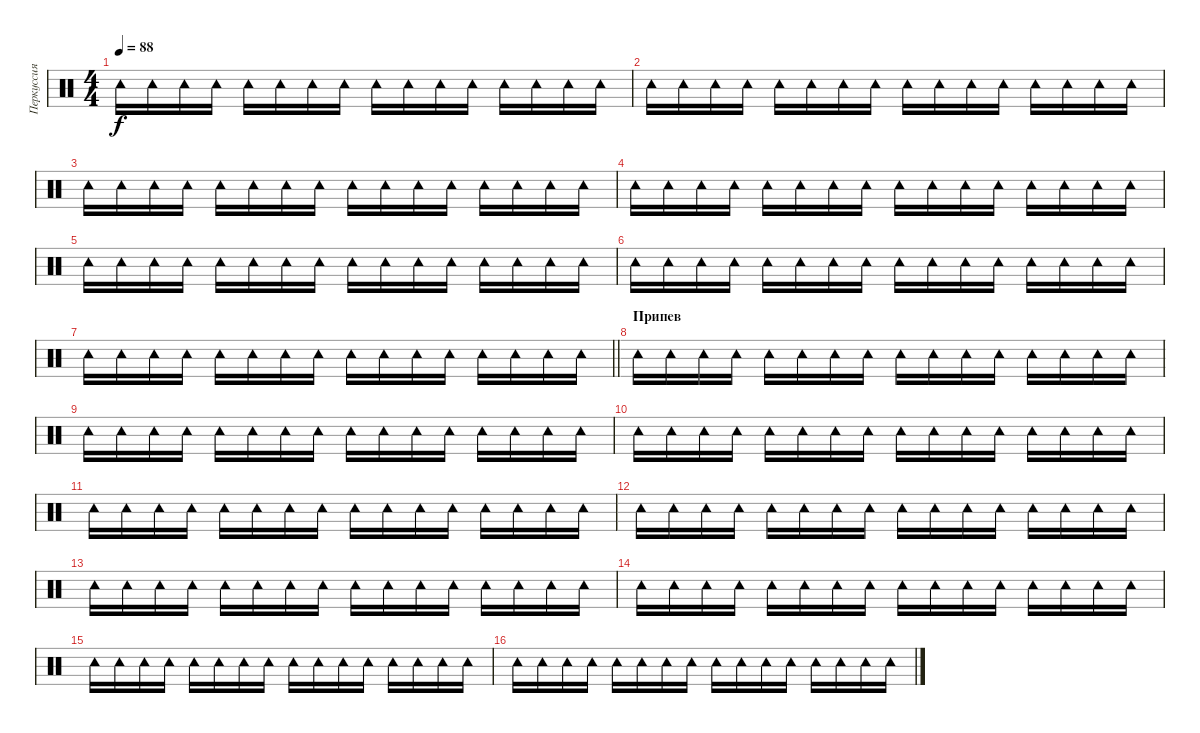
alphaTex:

\track ("Перкуссия 1" "Перкуссия ") {instrument percussion}
\staff {score}
\articulation defaults
\ts (4 4)
\tempo 88
\clef neutral
\ks c "Tambourine (hit)".16{dy f} "Tambourine (hit)".16 "Tambourine (hit)".16 "Tambourine (hit)".16 "Tambourine (hit)".16 "Tambourine (hit)".16 "Tambourine (hit)".16 "Tambourine (hit)".16 "Tambourine (hit)".16 "Tambourine (hit)".16 "Tambourine (hit)".16 "Tambourine (hit)".16 "Tambourine (hit)".16 "Tambourine (hit)".16 "Tambourine (hit)".16 "Tambourine (hit)".16
|
"Tambourine (hit)".16 "Tambourine (hit)".16 "Tambourine (hit)".16 "Tambourine (hit)".16 "Tambourine (hit)".16 "Tambourine (hit)".16 "Tambourine (hit)".16 "Tambourine (hit)".16 "Tambourine (hit)".16 "Tambourine (hit)".16 "Tambourine (hit)".16 "Tambourine (hit)".16 "Tambourine (hit)".16 "Tambourine (hit)".16 "Tambourine (hit)".16 "Tambourine (hit)".16 |
"Tambourine (hit)".16 "Tambourine (hit)".16 "Tambourine (hit)".16 "Tambourine (hit)".16 "Tambourine (hit)".16 "Tambourine (hit)".16 "Tambourine (hit)".16 "Tambourine (hit)".16 "Tambourine (hit)".16 "Tambourine (hit)".16 "Tambourine (hit)".16 "Tambourine (hit)".16 "Tambourine (hit)".16 "Tambourine (hit)".16 "Tambourine (hit)".16 "Tambourine (hit)".16 |
"Tambourine (hit)".16 "Tambourine (hit)".16 "Tambourine (hit)".16 "Tambourine (hit)".16 "Tambourine (hit)".16 "Tambourine (hit)".16 "Tambourine (hit)".16 "Tambourine (hit)".16 "Tambourine (hit)".16 "Tambourine (hit)".16 "Tambourine (hit)".16 "Tambourine (hit)".16 "Tambourine (hit)".16 "Tambourine (hit)".16 "Tambourine (hit)".16 "Tambourine (hit)".16 |
"Tambourine (hit)".16 "Tambourine (hit)".16 "Tambourine (hit)".16 "Tambourine (hit)".16 "Tambourine (hit)".16 "Tambourine (hit)".16 "Tambourine (hit)".16 "Tambourine (hit)".16 "Tambourine (hit)".16 "Tambourine (hit)".16 "Tambourine (hit)".16 "Tambourine (hit)".16 "Tambourine (hit)".16 "Tambourine (hit)".16 "Tambourine (hit)".16 "Tambourine (hit)".16 |
"Tambourine (hit)".16 "Tambourine (hit)".16 "Tambourine (hit)".16 "Tambourine (hit)".16 "Tambourine (hit)".16 "Tambourine (hit)".16 "Tambourine (hit)".16 "Tambourine (hit)".16 "Tambourine (hit)".16 "Tambourine (hit)".16 "Tambourine (hit)".16 "Tambourine (hit)".16 "Tambourine (hit)".16 "Tambourine (hit)".16 "Tambourine (hit)".16 "Tambourine (hit)".16 |
\barLineRight lightlight "Tambourine (hit)".16 "Tambourine (hit)".16 "Tambourine (hit)".16 "Tambourine (hit)".16 "Tambourine (hit)".16 "Tambourine (hit)".16 "Tambourine (hit)".16 "Tambourine (hit)".16 "Tambourine (hit)".16 "Tambourine (hit)".16 "Tambourine (hit)".16 "Tambourine (hit)".16 "Tambourine (hit)".16 "Tambourine (hit)".16 "Tambourine (hit)".16 "Tambourine (hit)".16
|
\section ("" "Припев")
"Tambourine (hit)".16 "Tambourine (hit)".16 "Tambourine (hit)".16 "Tambourine (hit)".16 "Tambourine (hit)".16 "Tambourine (hit)".16 "Tambourine (hit)".16 "Tambourine (hit)".16 "Tambourine (hit)".16 "Tambourine (hit)".16 "Tambourine (hit)".16 "Tambourine (hit)".16 "Tambourine (hit)".16 "Tambourine (hit)".16 "Tambourine (hit)".16 "Tambourine (hit)".16 |
"Tambourine (hit)".16 "Tambourine (hit)".16 "Tambourine (hit)".16 "Tambourine (hit)".16 "Tambourine (hit)".16 "Tambourine (hit)".16 "Tambourine (hit)".16 "Tambourine (hit)".16 "Tambourine (hit)".16 "Tambourine (hit)".16 "Tambourine (hit)".16 "Tambourine (hit)".16 "Tambourine (hit)".16 "Tambourine (hit)".16 "Tambourine (hit)".16 "Tambourine (hit)".16 |
"Tambourine (hit)".16 "Tambourine (hit)".16 "Tambourine (hit)".16 "Tambourine (hit)".16 "Tambourine (hit)".16 "Tambourine (hit)".16 "Tambourine (hit)".16 "Tambourine (hit)".16 "Tambourine (hit)".16 "Tambourine (hit)".16 "Tambourine (hit)".16 "Tambourine (hit)".16 "Tambourine (hit)".16 "Tambourine (hit)".16 "Tambourine (hit)".16 "Tambourine (hit)".16 |
"Tambourine (hit)".16 "Tambourine (hit)".16 "Tambourine (hit)".16 "Tambourine (hit)".16 "Tambourine (hit)".16 "Tambourine (hit)".16 "Tambourine (hit)".16 "Tambourine (hit)".16 "Tambourine (hit)".16 "Tambourine (hit)".16 "Tambourine (hit)".16 "Tambourine (hit)".16 "Tambourine (hit)".16 "Tambourine (hit)".16 "Tambourine (hit)".16 "Tambourine (hit)".16 |
"Tambourine (hit)".16 "Tambourine (hit)".16 "Tambourine (hit)".16 "Tambourine (hit)".16 "Tambourine (hit)".16 "Tambourine (hit)".16 "Tambourine (hit)".16 "Tambourine (hit)".16 "Tambourine (hit)".16 "Tambourine (hit)".16 "Tambourine (hit)".16 "Tambourine (hit)".16 "Tambourine (hit)".16 "Tambourine (hit)".16 "Tambourine (hit)".16 "Tambourine (hit)".16 |
"Tambourine (hit)".16 "Tambourine (hit)".16 "Tambourine (hit)".16 "Tambourine (hit)".16 "Tambourine (hit)".16 "Tambourine (hit)".16 "Tambourine (hit)".16 "Tambourine (hit)".16 "Tambourine (hit)".16 "Tambourine (hit)".16 "Tambourine (hit)".16 "Tambourine (hit)".16 "Tambourine (hit)".16 "Tambourine (hit)".16 "Tambourine (hit)".16 "Tambourine (hit)".16 |
"Tambourine (hit)".16 "Tambourine (hit)".16 "Tambourine (hit)".16 "Tambourine (hit)".16 "Tambourine (hit)".16 "Tambourine (hit)".16 "Tambourine (hit)".16 "Tambourine (hit)".16 "Tambourine (hit)".16 "Tambourine (hit)".16 "Tambourine (hit)".16 "Tambourine (hit)".16 "Tambourine (hit)".16 "Tambourine (hit)".16 "Tambourine (hit)".16 "Tambourine (hit)".16 |
"Tambourine (hit)".16 "Tambourine (hit)".16 "Tambourine (hit)".16 "Tambourine (hit)".16 "Tambourine (hit)".16 "Tambourine (hit)".16 "Tambourine (hit)".16 "Tambourine (hit)".16 "Tambourine (hit)".16 "Tambourine (hit)".16 "Tambourine (hit)".16 "Tambourine (hit)".16 "Tambourine (hit)".16 "Tambourine (hit)".16 "Tambourine (hit)".16 "Tambourine (hit)".16 |
"Tambourine (hit)".16 "Tambourine (hit)".16 "Tambourine (hit)".16 "Tambourine (hit)".16 "Tambourine (hit)".16 "Tambourine (hit)".16 "Tambourine (hit)".16 "Tambourine (hit)".16 "Tambourine (hit)".16 "Tambourine (hit)".16 "Tambourine (hit)".16 "Tambourine (hit)".16 "Tambourine (hit)".16 "Tambourine (hit)".16 "Tambourine (hit)".16 "Tambourine (hit)".16
